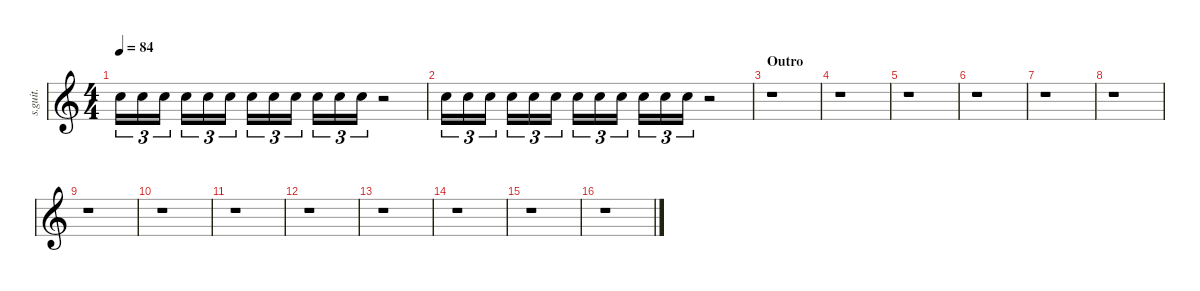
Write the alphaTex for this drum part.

\defaultSystemsLayout 4
\hideDynamics
\bracketExtendMode nobrackets
\track ("RIngo Starr - Hand Claps" "s.guit.") {instrument percussion}
\staff {score}
\articulation defaults
\ts (4 4)
\tempo 84
\clef g2
\ks c "Hand Clap (hit)".16{tu (3 2) lyrics (0 "") lyrics (1 "") lyrics (2 "") lyrics (3 "") lyrics (4 "") dy mf} "Hand Clap (hit)".16{tu (3 2) lyrics (0 "") lyrics (1 "") lyrics (2 "") lyrics (3 "") lyrics (4 "")} "Hand Clap (hit)".16{tu (3 2) lyrics (0 "") lyrics (1 "") lyrics (2 "") lyrics (3 "") lyrics (4 "")} "Hand Clap (hit)".16{tu (3 2) lyrics (0 "") lyrics (1 "") lyrics (2 "") lyrics (3 "") lyrics (4 "") dy mp} "Hand Clap (hit)".16{tu (3 2) lyrics (0 "") lyrics (1 "") lyrics (2 "") lyrics (3 "") lyrics (4 "")} "Hand Clap (hit)".16{tu (3 2) lyrics (0 "") lyrics (1 "") lyrics (2 "") lyrics (3 "") lyrics (4 "")} "Hand Clap (hit)".16{tu (3 2) lyrics (0 "") lyrics (1 "") lyrics (2 "") lyrics (3 "") lyrics (4 "") dy p} "Hand Clap (hit)".16{tu (3 2) lyrics (0 "") lyrics (1 "") lyrics (2 "") lyrics (3 "") lyrics (4 "")} "Hand Clap (hit)".16{tu (3 2) lyrics (0 "") lyrics (1 "") lyrics (2 "") lyrics (3 "") lyrics (4 "")} "Hand Clap (hit)".16{tu (3 2) lyrics (0 "") lyrics (1 "") lyrics (2 "") lyrics (3 "") lyrics (4 "") dy pp} "Hand Clap (hit)".16{tu (3 2) lyrics (0 "") lyrics (1 "") lyrics (2 "") lyrics (3 "") lyrics (4 "")} "Hand Clap (hit)".16{tu (3 2) lyrics (0 "") lyrics (1 "") lyrics (2 "") lyrics (3 "") lyrics (4 "")}
r.2 |
"Hand Clap (hit)".16{tu (3 2) lyrics (0 "") lyrics (1 "") lyrics (2 "") lyrics (3 "") lyrics (4 "") dy mf} "Hand Clap (hit)".16{tu (3 2) lyrics (0 "") lyrics (1 "") lyrics (2 "") lyrics (3 "") lyrics (4 "")} "Hand Clap (hit)".16{tu (3 2) lyrics (0 "") lyrics (1 "") lyrics (2 "") lyrics (3 "") lyrics (4 "")} "Hand Clap (hit)".16{tu (3 2) lyrics (0 "") lyrics (1 "") lyrics (2 "") lyrics (3 "") lyrics (4 "") dy mp} "Hand Clap (hit)".16{tu (3 2) lyrics (0 "") lyrics (1 "") lyrics (2 "") lyrics (3 "") lyrics (4 "")} "Hand Clap (hit)".16{tu (3 2) lyrics (0 "") lyrics (1 "") lyrics (2 "") lyrics (3 "") lyrics (4 "")} "Hand Clap (hit)".16{tu (3 2) lyrics (0 "") lyrics (1 "") lyrics (2 "") lyrics (3 "") lyrics (4 "") dy p} "Hand Clap (hit)".16{tu (3 2) lyrics (0 "") lyrics (1 "") lyrics (2 "") lyrics (3 "") lyrics (4 "")} "Hand Clap (hit)".16{tu (3 2) lyrics (0 "") lyrics (1 "") lyrics (2 "") lyrics (3 "") lyrics (4 "")} "Hand Clap (hit)".16{tu (3 2) lyrics (0 "") lyrics (1 "") lyrics (2 "") lyrics (3 "") lyrics (4 "") dy pp} "Hand Clap (hit)".16{tu (3 2) lyrics (0 "") lyrics (1 "") lyrics (2 "") lyrics (3 "") lyrics (4 "")} "Hand Clap (hit)".16{tu (3 2) lyrics (0 "") lyrics (1 "") lyrics (2 "") lyrics (3 "") lyrics (4 "")} r.2 |
\section ("" "Outro")
r.1 |
r.1 |
r.1 |
r.1 |
r.1 |
r.1 |
r.1 |
r.1 |
r.1 |
r.1 |
r.1 |
r.1 |
r.1 |
r.1
